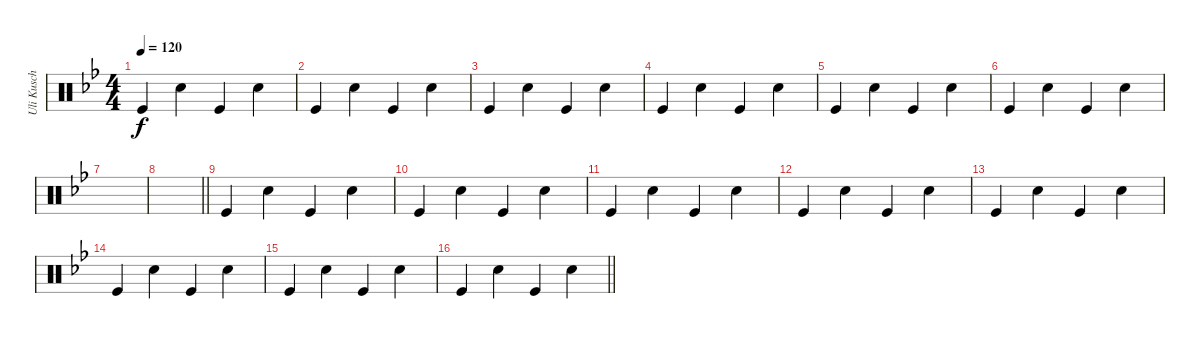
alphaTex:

\track ("Uli Kusch" "Uli Kusch") {instrument percussion}
\staff {score}
\articulation defaults
\ts (4 4)
\tempo 120
\clef neutral
\ks gminor "Kick (hit)".4{dy f} "Snare (hit) 2".4 "Kick (hit)".4 "Snare (hit) 2".4
|
"Kick (hit)".4 "Snare (hit) 2".4 "Kick (hit)".4 "Snare (hit) 2".4 |
"Kick (hit)".4 "Snare (hit) 2".4 "Kick (hit)".4 "Snare (hit) 2".4 |
"Kick (hit)".4 "Snare (hit) 2".4 "Kick (hit)".4 "Snare (hit) 2".4 |
"Kick (hit)".4 "Snare (hit) 2".4 "Kick (hit)".4 "Snare (hit) 2".4 |
"Kick (hit)".4 "Snare (hit) 2".4 "Kick (hit)".4 "Snare (hit) 2".4 |
|
\barLineRight lightlight
|
"Kick (hit)".4 "Snare (hit) 2".4 "Kick (hit)".4 "Snare (hit) 2".4 |
"Kick (hit)".4 "Snare (hit) 2".4 "Kick (hit)".4 "Snare (hit) 2".4 |
"Kick (hit)".4 "Snare (hit) 2".4 "Kick (hit)".4 "Snare (hit) 2".4 |
"Kick (hit)".4 "Snare (hit) 2".4 "Kick (hit)".4 "Snare (hit) 2".4 |
"Kick (hit)".4 "Snare (hit) 2".4 "Kick (hit)".4 "Snare (hit) 2".4 |
"Kick (hit)".4 "Snare (hit) 2".4 "Kick (hit)".4 "Snare (hit) 2".4 |
"Kick (hit)".4 "Snare (hit) 2".4 "Kick (hit)".4 "Snare (hit) 2".4 |
\barLineRight lightlight "Kick (hit)".4 "Snare (hit) 2".4 "Kick (hit)".4 "Snare (hit) 2".4
